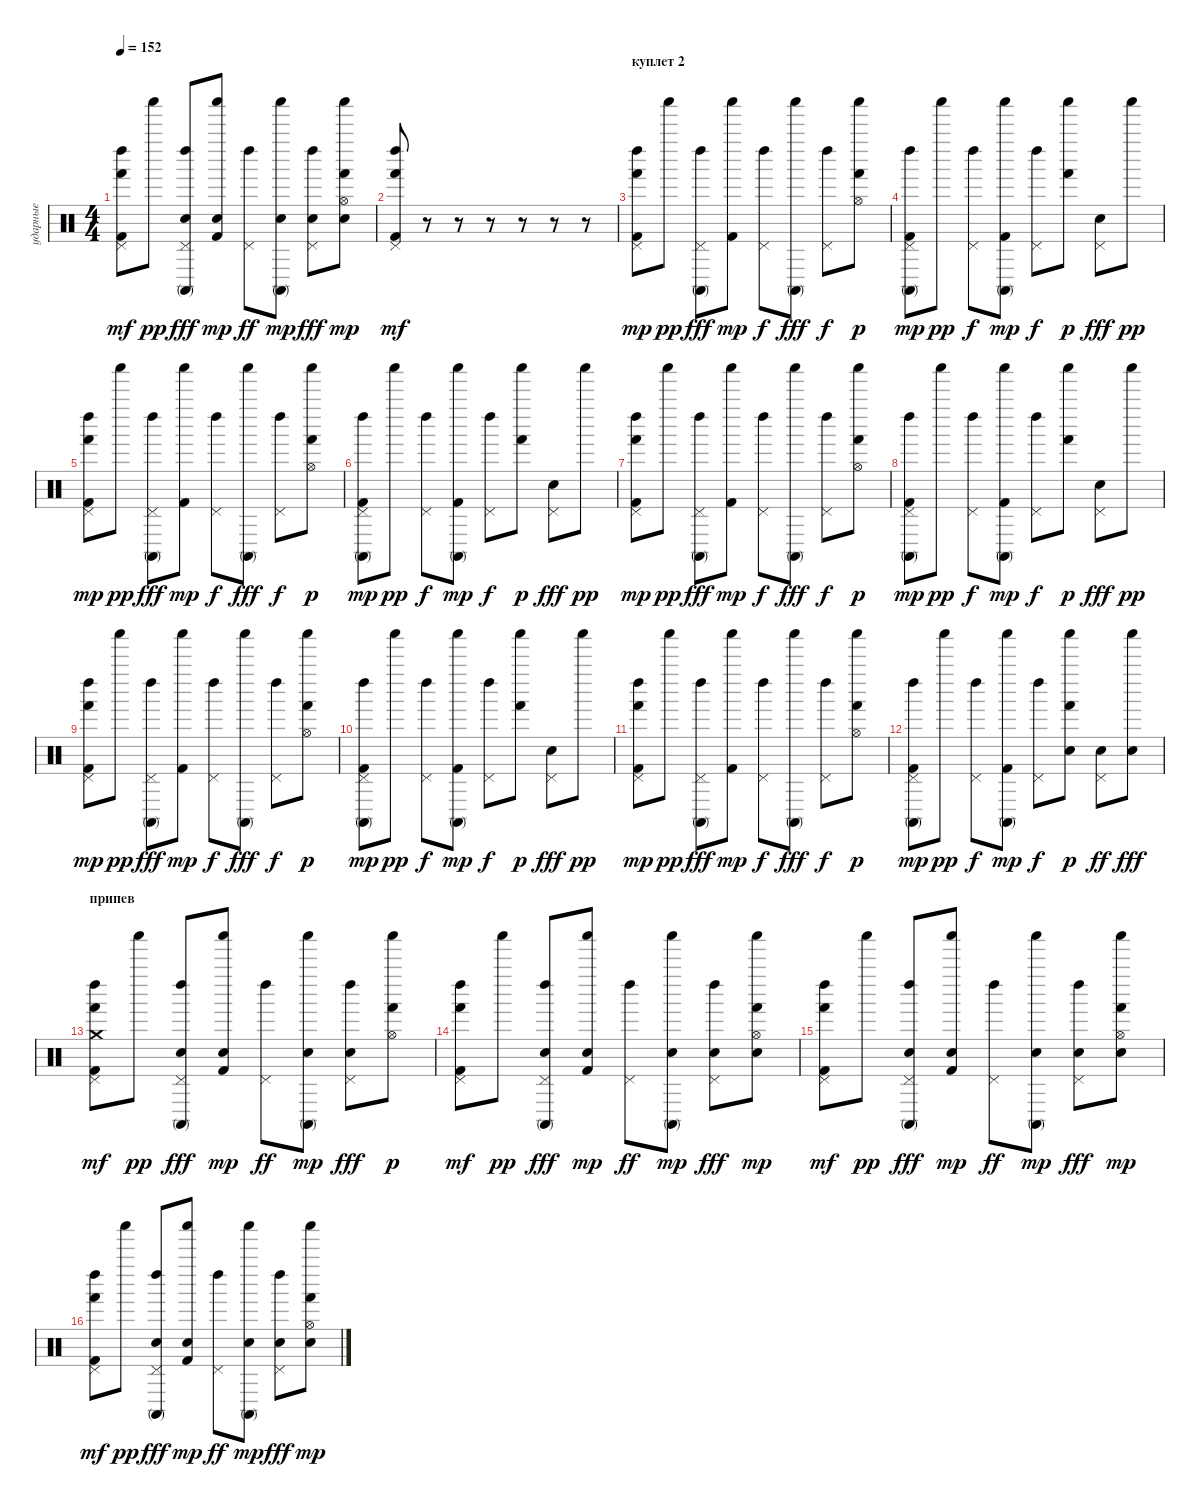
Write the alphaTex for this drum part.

\track ("ударные" "ударные") {instrument percussion}
\staff {score}
\articulation defaults
\ts (4 4)
\tempo 152
\clef neutral
\ks c
("Pedal Hi-Hat (hit)" "Left Maraca (hit)" "Hand (hit)" "Kick (hit) 2").8{dy mf} "Shaker (hit)".8{dy pp} ("Pedal Hi-Hat (hit)" "Left Maraca (hit)" "Conga high (mute)" "Snare (hit) 2").8{dy fff} ("Shaker (hit)" "Kick (hit) 2" "Electric Snare (hit)").8{dy mp} ("Pedal Hi-Hat (hit)" "Left Maraca (hit)").8{dy ff} ("Shaker (hit)" "Conga high (mute)" "Electric Snare (hit)").8{dy mp} ("Pedal Hi-Hat (hit)" "Left Maraca (hit)" "Snare (hit) 2").8{dy fff} ("Shaker (hit)" "Hi-Hat (open)" "Hand (hit)" "Electric Snare (hit)").8{dy mp} |
("Pedal Hi-Hat (hit)" "Left Maraca (hit)" "Hand (hit)" "Kick (hit) 2").8{dy mf} r.8 r.8 r.8 r.8 r.8 r.8 |
\section ("" "куплет 2")
("Pedal Hi-Hat (hit)" "Left Maraca (hit)" "Hand (hit)" "Kick (hit) 2").8{dy mp} "Shaker (hit)".8{dy pp} ("Pedal Hi-Hat (hit)" "Left Maraca (hit)" "Conga high (mute)").8{dy fff} ("Shaker (hit)" "Kick (hit) 2").8{dy mp} ("Pedal Hi-Hat (hit)" "Left Maraca (hit)").8{dy f} ("Shaker (hit)" "Conga high (mute)").8{dy fff} ("Pedal Hi-Hat (hit)" "Left Maraca (hit)").8{dy f} ("Shaker (hit)" "Hi-Hat (open)" "Hand (hit)").8{dy p} |
("Pedal Hi-Hat (hit)" "Left Maraca (hit)" "Conga high (mute)" "Kick (hit) 2").8{dy mp} "Shaker (hit)".8{dy pp} ("Pedal Hi-Hat (hit)" "Left Maraca (hit)").8{dy f} ("Shaker (hit)" "Conga high (mute)" "Kick (hit) 2").8{dy mp} ("Pedal Hi-Hat (hit)" "Left Maraca (hit)").8{dy f} ("Shaker (hit)" "Hand (hit)").8{dy p} ("Pedal Hi-Hat (hit)" "Snare (hit) 2").8{dy fff} "Shaker (hit)".8{dy pp} |
("Pedal Hi-Hat (hit)" "Left Maraca (hit)" "Hand (hit)" "Kick (hit) 2").8{dy mp} "Shaker (hit)".8{dy pp} ("Pedal Hi-Hat (hit)" "Left Maraca (hit)" "Conga high (mute)").8{dy fff} ("Shaker (hit)" "Kick (hit) 2").8{dy mp} ("Pedal Hi-Hat (hit)" "Left Maraca (hit)").8{dy f} ("Shaker (hit)" "Conga high (mute)").8{dy fff} ("Pedal Hi-Hat (hit)" "Left Maraca (hit)").8{dy f} ("Shaker (hit)" "Hi-Hat (open)" "Hand (hit)").8{dy p} |
("Pedal Hi-Hat (hit)" "Left Maraca (hit)" "Conga high (mute)" "Kick (hit) 2").8{dy mp} "Shaker (hit)".8{dy pp} ("Pedal Hi-Hat (hit)" "Left Maraca (hit)").8{dy f} ("Shaker (hit)" "Conga high (mute)" "Kick (hit) 2").8{dy mp} ("Pedal Hi-Hat (hit)" "Left Maraca (hit)").8{dy f} ("Shaker (hit)" "Hand (hit)").8{dy p} ("Pedal Hi-Hat (hit)" "Snare (hit) 2").8{dy fff} "Shaker (hit)".8{dy pp} |
("Pedal Hi-Hat (hit)" "Left Maraca (hit)" "Hand (hit)" "Kick (hit) 2").8{dy mp} "Shaker (hit)".8{dy pp} ("Pedal Hi-Hat (hit)" "Left Maraca (hit)" "Conga high (mute)").8{dy fff} ("Shaker (hit)" "Kick (hit) 2").8{dy mp} ("Pedal Hi-Hat (hit)" "Left Maraca (hit)").8{dy f} ("Shaker (hit)" "Conga high (mute)").8{dy fff} ("Pedal Hi-Hat (hit)" "Left Maraca (hit)").8{dy f} ("Shaker (hit)" "Hi-Hat (open)" "Hand (hit)").8{dy p} |
("Pedal Hi-Hat (hit)" "Left Maraca (hit)" "Conga high (mute)" "Kick (hit) 2").8{dy mp} "Shaker (hit)".8{dy pp} ("Pedal Hi-Hat (hit)" "Left Maraca (hit)").8{dy f} ("Shaker (hit)" "Conga high (mute)" "Kick (hit) 2").8{dy mp} ("Pedal Hi-Hat (hit)" "Left Maraca (hit)").8{dy f} ("Shaker (hit)" "Hand (hit)").8{dy p} ("Pedal Hi-Hat (hit)" "Snare (hit) 2").8{dy fff} "Shaker (hit)".8{dy pp} |
("Pedal Hi-Hat (hit)" "Left Maraca (hit)" "Hand (hit)" "Kick (hit) 2").8{dy mp} "Shaker (hit)".8{dy pp} ("Pedal Hi-Hat (hit)" "Left Maraca (hit)" "Conga high (mute)").8{dy fff} ("Shaker (hit)" "Kick (hit) 2").8{dy mp} ("Pedal Hi-Hat (hit)" "Left Maraca (hit)").8{dy f} ("Shaker (hit)" "Conga high (mute)").8{dy fff} ("Pedal Hi-Hat (hit)" "Left Maraca (hit)").8{dy f} ("Shaker (hit)" "Hi-Hat (open)" "Hand (hit)").8{dy p} |
("Pedal Hi-Hat (hit)" "Left Maraca (hit)" "Conga high (mute)" "Kick (hit) 2").8{dy mp} "Shaker (hit)".8{dy pp} ("Pedal Hi-Hat (hit)" "Left Maraca (hit)").8{dy f} ("Shaker (hit)" "Conga high (mute)" "Kick (hit) 2").8{dy mp} ("Pedal Hi-Hat (hit)" "Left Maraca (hit)").8{dy f} ("Shaker (hit)" "Hand (hit)").8{dy p} ("Pedal Hi-Hat (hit)" "Snare (hit) 2").8{dy fff} "Shaker (hit)".8{dy pp} |
("Pedal Hi-Hat (hit)" "Left Maraca (hit)" "Hand (hit)" "Kick (hit) 2").8{dy mp} "Shaker (hit)".8{dy pp} ("Pedal Hi-Hat (hit)" "Left Maraca (hit)" "Conga high (mute)").8{dy fff} ("Shaker (hit)" "Kick (hit) 2").8{dy mp} ("Pedal Hi-Hat (hit)" "Left Maraca (hit)").8{dy f} ("Shaker (hit)" "Conga high (mute)").8{dy fff} ("Pedal Hi-Hat (hit)" "Left Maraca (hit)").8{dy f} ("Shaker (hit)" "Hi-Hat (open)" "Hand (hit)").8{dy p} |
("Pedal Hi-Hat (hit)" "Left Maraca (hit)" "Conga high (mute)" "Kick (hit) 2").8{dy mp} "Shaker (hit)".8{dy pp} ("Pedal Hi-Hat (hit)" "Left Maraca (hit)").8{dy f} ("Shaker (hit)" "Conga high (mute)" "Kick (hit) 2").8{dy mp} ("Pedal Hi-Hat (hit)" "Left Maraca (hit)").8{dy f} ("Shaker (hit)" "Hand (hit)" "Snare (hit) 2").8{dy p} ("Pedal Hi-Hat (hit)" "Snare (hit) 2").8{dy ff} ("Shaker (hit)" "Snare (hit) 2").8{dy fff} |
\section ("" "припев")
("Pedal Hi-Hat (hit)" "Left Maraca (hit)" "Hand (hit)" "Kick (hit) 2" "Crash medium (hit)").8{dy mf} "Shaker (hit)".8{dy pp} ("Pedal Hi-Hat (hit)" "Left Maraca (hit)" "Conga high (mute)" "Snare (hit) 2").8{dy fff} ("Shaker (hit)" "Kick (hit) 2" "Electric Snare (hit)").8{dy mp} ("Pedal Hi-Hat (hit)" "Left Maraca (hit)").8{dy ff} ("Shaker (hit)" "Conga high (mute)" "Electric Snare (hit)").8{dy mp} ("Pedal Hi-Hat (hit)" "Left Maraca (hit)" "Snare (hit) 2").8{dy fff} ("Shaker (hit)" "Hi-Hat (open)" "Hand (hit)").8{dy p} |
("Pedal Hi-Hat (hit)" "Left Maraca (hit)" "Hand (hit)" "Kick (hit) 2").8{dy mf} "Shaker (hit)".8{dy pp} ("Pedal Hi-Hat (hit)" "Left Maraca (hit)" "Conga high (mute)" "Snare (hit) 2").8{dy fff} ("Shaker (hit)" "Kick (hit) 2" "Electric Snare (hit)").8{dy mp} ("Pedal Hi-Hat (hit)" "Left Maraca (hit)").8{dy ff} ("Shaker (hit)" "Conga high (mute)" "Electric Snare (hit)").8{dy mp} ("Pedal Hi-Hat (hit)" "Left Maraca (hit)" "Snare (hit) 2").8{dy fff} ("Shaker (hit)" "Hi-Hat (open)" "Hand (hit)" "Electric Snare (hit)").8{dy mp} |
("Pedal Hi-Hat (hit)" "Left Maraca (hit)" "Hand (hit)" "Kick (hit) 2").8{dy mf} "Shaker (hit)".8{dy pp} ("Pedal Hi-Hat (hit)" "Left Maraca (hit)" "Conga high (mute)" "Snare (hit) 2").8{dy fff} ("Shaker (hit)" "Kick (hit) 2" "Electric Snare (hit)").8{dy mp} ("Pedal Hi-Hat (hit)" "Left Maraca (hit)").8{dy ff} ("Shaker (hit)" "Conga high (mute)" "Electric Snare (hit)").8{dy mp} ("Pedal Hi-Hat (hit)" "Left Maraca (hit)" "Snare (hit) 2").8{dy fff} ("Shaker (hit)" "Hi-Hat (open)" "Hand (hit)" "Electric Snare (hit)").8{dy mp} |
("Pedal Hi-Hat (hit)" "Left Maraca (hit)" "Hand (hit)" "Kick (hit) 2").8{dy mf} "Shaker (hit)".8{dy pp} ("Pedal Hi-Hat (hit)" "Left Maraca (hit)" "Conga high (mute)" "Snare (hit) 2").8{dy fff} ("Shaker (hit)" "Kick (hit) 2" "Electric Snare (hit)").8{dy mp} ("Pedal Hi-Hat (hit)" "Left Maraca (hit)").8{dy ff} ("Shaker (hit)" "Conga high (mute)" "Electric Snare (hit)").8{dy mp} ("Pedal Hi-Hat (hit)" "Left Maraca (hit)" "Snare (hit) 2").8{dy fff} ("Shaker (hit)" "Hi-Hat (open)" "Hand (hit)" "Electric Snare (hit)").8{dy mp}
